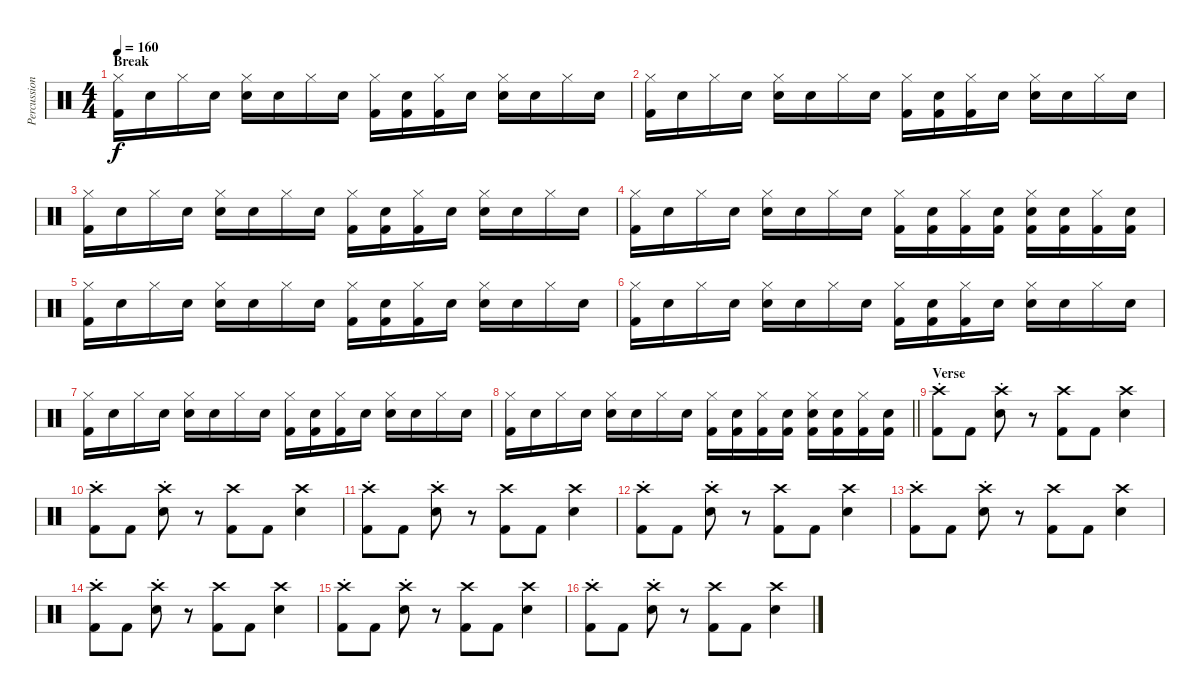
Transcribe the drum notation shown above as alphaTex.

\track ("Percussion" "Percussion") {instrument percussion}
\staff {score}
\articulation defaults
\ts (4 4)
\section ("" "Break")
\tempo 160
\clef neutral
\ks c
("Hi-Hat (closed)" "Kick (hit) 2").16{dy f} "Snare (hit)".16 "Hi-Hat (closed)".16 "Snare (hit)".16 ("Hi-Hat (closed)" "Snare (hit) 2").16 "Snare (hit)".16 "Hi-Hat (closed)".16 "Snare (hit)".16 ("Hi-Hat (closed)" "Kick (hit) 2").16 ("Snare (hit)" "Kick (hit) 2").16 ("Hi-Hat (closed)" "Kick (hit) 2").16 "Snare (hit)".16 ("Hi-Hat (closed)" "Snare (hit) 2").16 "Snare (hit)".16 "Hi-Hat (closed)".16 "Snare (hit)".16 |
("Hi-Hat (closed)" "Kick (hit) 2").16 "Snare (hit)".16 "Hi-Hat (closed)".16 "Snare (hit)".16 ("Hi-Hat (closed)" "Snare (hit) 2").16 "Snare (hit)".16 "Hi-Hat (closed)".16 "Snare (hit)".16 ("Hi-Hat (closed)" "Kick (hit) 2").16 ("Snare (hit)" "Kick (hit) 2").16 ("Hi-Hat (closed)" "Kick (hit) 2").16 "Snare (hit)".16 ("Hi-Hat (closed)" "Snare (hit) 2").16 "Snare (hit)".16 "Hi-Hat (closed)".16 "Snare (hit)".16 |
("Hi-Hat (closed)" "Kick (hit) 2").16 "Snare (hit)".16 "Hi-Hat (closed)".16 "Snare (hit)".16 ("Hi-Hat (closed)" "Snare (hit) 2").16 "Snare (hit)".16 "Hi-Hat (closed)".16 "Snare (hit)".16 ("Hi-Hat (closed)" "Kick (hit) 2").16 ("Snare (hit)" "Kick (hit) 2").16 ("Hi-Hat (closed)" "Kick (hit) 2").16 "Snare (hit)".16 ("Hi-Hat (closed)" "Snare (hit) 2").16 "Snare (hit)".16 "Hi-Hat (closed)".16 "Snare (hit)".16 |
("Hi-Hat (closed)" "Kick (hit) 2").16 "Snare (hit)".16 "Hi-Hat (closed)".16 "Snare (hit)".16 ("Hi-Hat (closed)" "Snare (hit) 2").16 "Snare (hit)".16 "Hi-Hat (closed)".16 "Snare (hit)".16 ("Hi-Hat (closed)" "Kick (hit) 2").16 ("Snare (hit)" "Kick (hit) 2").16 ("Hi-Hat (closed)" "Kick (hit) 2").16 ("Snare (hit)" "Kick (hit) 2").16 ("Hi-Hat (closed)" "Snare (hit) 2" "Kick (hit) 2").16 ("Snare (hit)" "Kick (hit) 2").16 ("Hi-Hat (closed)" "Kick (hit) 2").16 ("Snare (hit)" "Kick (hit) 2").16 |
("Hi-Hat (closed)" "Kick (hit) 2").16 "Snare (hit)".16 "Hi-Hat (closed)".16 "Snare (hit)".16 ("Hi-Hat (closed)" "Snare (hit) 2").16 "Snare (hit)".16 "Hi-Hat (closed)".16 "Snare (hit)".16 ("Hi-Hat (closed)" "Kick (hit) 2").16 ("Snare (hit)" "Kick (hit) 2").16 ("Hi-Hat (closed)" "Kick (hit) 2").16 "Snare (hit)".16 ("Hi-Hat (closed)" "Snare (hit) 2").16 "Snare (hit)".16 "Hi-Hat (closed)".16 "Snare (hit)".16 |
("Hi-Hat (closed)" "Kick (hit) 2").16 "Snare (hit)".16 "Hi-Hat (closed)".16 "Snare (hit)".16 ("Hi-Hat (closed)" "Snare (hit) 2").16 "Snare (hit)".16 "Hi-Hat (closed)".16 "Snare (hit)".16 ("Hi-Hat (closed)" "Kick (hit) 2").16 ("Snare (hit)" "Kick (hit) 2").16 ("Hi-Hat (closed)" "Kick (hit) 2").16 "Snare (hit)".16 ("Hi-Hat (closed)" "Snare (hit) 2").16 "Snare (hit)".16 "Hi-Hat (closed)".16 "Snare (hit)".16 |
("Hi-Hat (closed)" "Kick (hit) 2").16 "Snare (hit)".16 "Hi-Hat (closed)".16 "Snare (hit)".16 ("Hi-Hat (closed)" "Snare (hit) 2").16 "Snare (hit)".16 "Hi-Hat (closed)".16 "Snare (hit)".16 ("Hi-Hat (closed)" "Kick (hit) 2").16 ("Snare (hit)" "Kick (hit) 2").16 ("Hi-Hat (closed)" "Kick (hit) 2").16 "Snare (hit)".16 ("Hi-Hat (closed)" "Snare (hit) 2").16 "Snare (hit)".16 "Hi-Hat (closed)".16 "Snare (hit)".16 |
\barLineRight lightlight
("Hi-Hat (closed)" "Kick (hit) 2").16 "Snare (hit)".16 "Hi-Hat (closed)".16 "Snare (hit)".16 ("Hi-Hat (closed)" "Snare (hit) 2").16 "Snare (hit)".16 "Hi-Hat (closed)".16 "Snare (hit)".16 ("Hi-Hat (closed)" "Kick (hit) 2").16 ("Snare (hit)" "Kick (hit) 2").16 ("Hi-Hat (closed)" "Kick (hit) 2").16 ("Snare (hit)" "Kick (hit) 2").16 ("Hi-Hat (closed)" "Snare (hit) 2" "Kick (hit) 2").16 ("Snare (hit)" "Kick (hit) 2").16 ("Hi-Hat (closed)" "Kick (hit) 2").16 ("Snare (hit)" "Kick (hit) 2").16 |
\section ("" "Verse")
("Crash high (hit)"{st} "Kick (hit) 2").8 "Kick (hit) 2".8 ("Crash high (hit)"{st} "Snare (hit) 2").8 r.8 ("Crash high (hit)" "Kick (hit) 2").8 "Kick (hit) 2".8 ("Crash high (hit)" "Snare (hit) 2").4 |
("Crash high (hit)"{st} "Kick (hit) 2").8 "Kick (hit) 2".8 ("Crash high (hit)"{st} "Snare (hit) 2").8 r.8 ("Crash high (hit)" "Kick (hit) 2").8 "Kick (hit) 2".8 ("Crash high (hit)" "Snare (hit) 2").4 |
("Crash high (hit)"{st} "Kick (hit) 2").8 "Kick (hit) 2".8 ("Crash high (hit)"{st} "Snare (hit) 2").8 r.8 ("Crash high (hit)" "Kick (hit) 2").8 "Kick (hit) 2".8 ("Crash high (hit)" "Snare (hit) 2").4 |
("Crash high (hit)"{st} "Kick (hit) 2").8 "Kick (hit) 2".8 ("Crash high (hit)"{st} "Snare (hit) 2").8 r.8 ("Crash high (hit)" "Kick (hit) 2").8 "Kick (hit) 2".8 ("Crash high (hit)" "Snare (hit) 2").4 |
("Crash high (hit)"{st} "Kick (hit) 2").8 "Kick (hit) 2".8 ("Crash high (hit)"{st} "Snare (hit) 2").8 r.8 ("Crash high (hit)" "Kick (hit) 2").8 "Kick (hit) 2".8 ("Crash high (hit)" "Snare (hit) 2").4 |
("Crash high (hit)"{st} "Kick (hit) 2").8 "Kick (hit) 2".8 ("Crash high (hit)"{st} "Snare (hit) 2").8 r.8 ("Crash high (hit)" "Kick (hit) 2").8 "Kick (hit) 2".8 ("Crash high (hit)" "Snare (hit) 2").4 |
("Crash high (hit)"{st} "Kick (hit) 2").8 "Kick (hit) 2".8 ("Crash high (hit)"{st} "Snare (hit) 2").8 r.8 ("Crash high (hit)" "Kick (hit) 2").8 "Kick (hit) 2".8 ("Crash high (hit)" "Snare (hit) 2").4 |
("Crash high (hit)"{st} "Kick (hit) 2").8 "Kick (hit) 2".8 ("Crash high (hit)"{st} "Snare (hit) 2").8 r.8 ("Crash high (hit)" "Kick (hit) 2").8 "Kick (hit) 2".8 ("Crash high (hit)" "Snare (hit) 2").4
